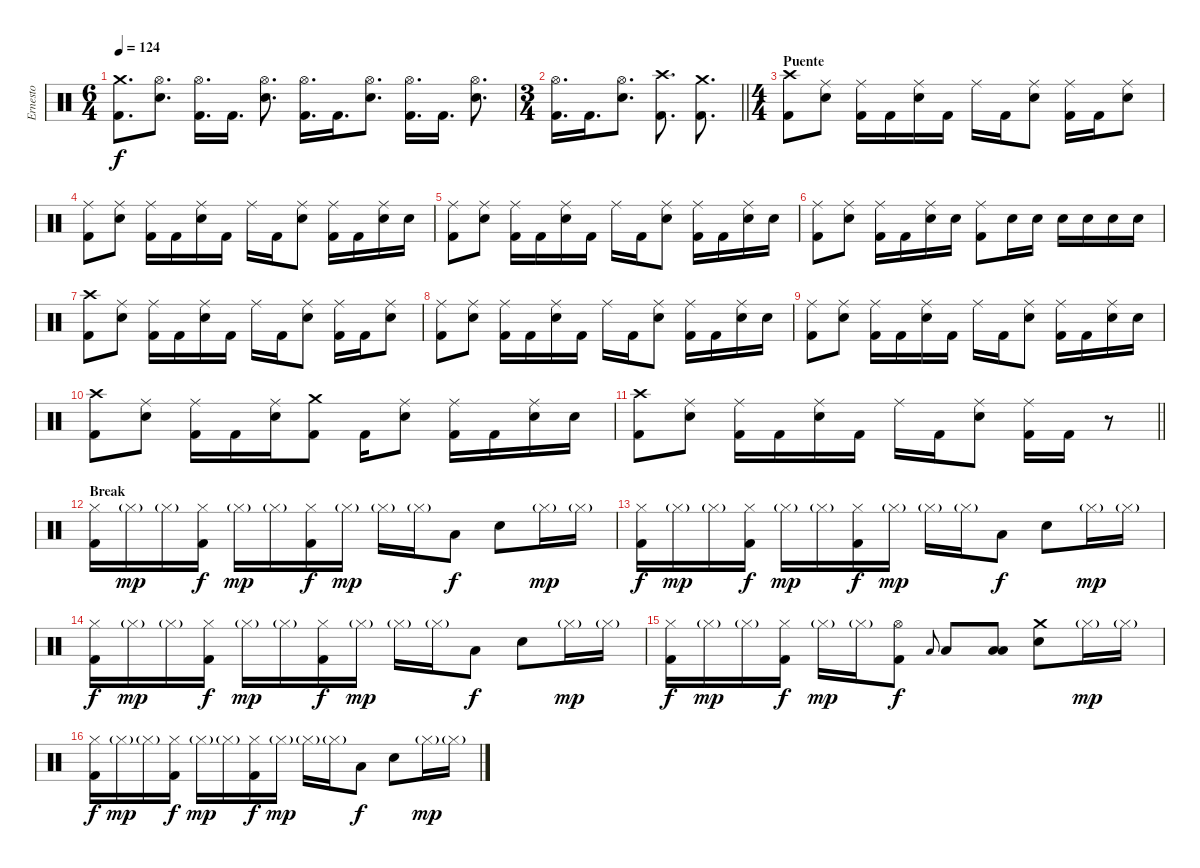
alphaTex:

\track ("Ernesto" "Ernesto") {instrument percussion}
\staff
\articulation defaults
\ts (6 4)
\tempo 124
\clef neutral
\ks c
("Crash medium (hit)" "Kick (hit) 2").8{d dy f} ("Hi-Hat (open)" "Electric Snare (hit)").8{d} ("Hi-Hat (open)" "Kick (hit) 2").16{d} "Kick (hit) 2".16{d} ("Hi-Hat (open)" "Electric Snare (hit)").8{d} ("Hi-Hat (open)" "Kick (hit) 2").16{d} "Kick (hit) 2".16{d} ("Hi-Hat (open)" "Electric Snare (hit)").8{d} ("Hi-Hat (open)" "Kick (hit) 2").16{d} "Kick (hit) 2".16{d} ("Hi-Hat (open)" "Electric Snare (hit)").8{d} |
\ts (3 4)
\barLineRight lightlight
("Hi-Hat (open)" "Kick (hit) 2").16{d} "Kick (hit) 2".16{d} ("Hi-Hat (open)" "Electric Snare (hit)").8{d} ("Crash high (hit)" "Kick (hit) 2").8{d} ("Crash medium (hit)" "Kick (hit) 2").8{d} |
\ts (4 4)
\section ("" "Puente")
("Crash high (hit)" "Kick (hit) 2").8 ("Ride (middle)" "Electric Snare (hit)").8 ("Ride (middle)" "Kick (hit) 2").16 "Kick (hit) 2".16 ("Ride (middle)" "Electric Snare (hit)").16 "Kick (hit) 2".16 "Ride (middle)".16 "Kick (hit) 2".16 ("Ride (middle)" "Electric Snare (hit)").8 ("Ride (middle)" "Kick (hit) 2").16 "Kick (hit) 2".16 ("Ride (middle)" "Electric Snare (hit)").8 |
("Ride (middle)" "Kick (hit) 2").8 ("Ride (middle)" "Electric Snare (hit)").8 ("Ride (middle)" "Kick (hit) 2").16 "Kick (hit) 2".16 ("Ride (middle)" "Electric Snare (hit)").16 "Kick (hit) 2".16 "Ride (middle)".16 "Kick (hit) 2".16 ("Ride (middle)" "Electric Snare (hit)").8 ("Ride (middle)" "Kick (hit) 2").16 "Kick (hit) 2".16 ("Ride (middle)" "Electric Snare (hit)").16 "Electric Snare (hit)".16 |
("Ride (middle)" "Kick (hit) 2").8 ("Ride (middle)" "Electric Snare (hit)").8 ("Ride (middle)" "Kick (hit) 2").16 "Kick (hit) 2".16 ("Ride (middle)" "Electric Snare (hit)").16 "Kick (hit) 2".16 "Ride (middle)".16 "Kick (hit) 2".16 ("Ride (middle)" "Electric Snare (hit)").8 ("Ride (middle)" "Kick (hit) 2").16 "Kick (hit) 2".16 ("Ride (middle)" "Electric Snare (hit)").16 "Electric Snare (hit)".16 |
("Ride (middle)" "Kick (hit) 2").8 ("Ride (middle)" "Electric Snare (hit)").8 ("Ride (middle)" "Kick (hit) 2").16 "Kick (hit) 2".16 ("Ride (middle)" "Electric Snare (hit)").16 "Electric Snare (hit)".16 ("Ride (middle)" "Kick (hit) 2").8 "Electric Snare (hit)".16 "Electric Snare (hit)".16 "Electric Snare (hit)".16 "Electric Snare (hit)".16 "Electric Snare (hit)".16 "Electric Snare (hit)".16 |
("Crash high (hit)" "Kick (hit) 2").8 ("Ride (middle)" "Electric Snare (hit)").8 ("Ride (middle)" "Kick (hit) 2").16 "Kick (hit) 2".16 ("Ride (middle)" "Electric Snare (hit)").16 "Kick (hit) 2".16 "Ride (middle)".16 "Kick (hit) 2".16 ("Ride (middle)" "Electric Snare (hit)").8 ("Ride (middle)" "Kick (hit) 2").16 "Kick (hit) 2".16 ("Ride (middle)" "Electric Snare (hit)").8 |
("Ride (middle)" "Kick (hit) 2").8 ("Ride (middle)" "Electric Snare (hit)").8 ("Ride (middle)" "Kick (hit) 2").16 "Kick (hit) 2".16 ("Ride (middle)" "Electric Snare (hit)").16 "Kick (hit) 2".16 "Ride (middle)".16 "Kick (hit) 2".16 ("Ride (middle)" "Electric Snare (hit)").8 ("Ride (middle)" "Kick (hit) 2").16 "Kick (hit) 2".16 ("Ride (middle)" "Electric Snare (hit)").16 "Electric Snare (hit)".16 |
("Ride (middle)" "Kick (hit) 2").8 ("Ride (middle)" "Electric Snare (hit)").8 ("Ride (middle)" "Kick (hit) 2").16 "Kick (hit) 2".16 ("Ride (middle)" "Electric Snare (hit)").16 "Kick (hit) 2".16 "Ride (middle)".16 "Kick (hit) 2".16 ("Ride (middle)" "Electric Snare (hit)").8 ("Ride (middle)" "Kick (hit) 2").16 "Kick (hit) 2".16 ("Ride (middle)" "Electric Snare (hit)").16 "Electric Snare (hit)".16 |
("Crash high (hit)" "Kick (hit) 2").8 ("Ride (middle)" "Electric Snare (hit)").8 ("Ride (middle)" "Kick (hit) 2").16 "Kick (hit) 2".16 ("Ride (middle)" "Electric Snare (hit)").16 ("Crash medium (hit)" "Kick (hit) 2").8 "Kick (hit) 2".16 ("Ride (middle)" "Electric Snare (hit)").8 ("Ride (middle)" "Kick (hit) 2").16 "Kick (hit) 2".16 ("Ride (middle)" "Electric Snare (hit)").16 "Electric Snare (hit)".16 |
\barLineRight lightlight
("Crash high (hit)" "Kick (hit) 2").8 ("Ride (middle)" "Electric Snare (hit)").8 ("Ride (middle)" "Kick (hit) 2").16 "Kick (hit) 2".16 ("Ride (middle)" "Electric Snare (hit)").16 "Kick (hit) 2".16 "Ride (middle)".16 "Kick (hit) 2".16 ("Ride (middle)" "Electric Snare (hit)").8 ("Ride (middle)" "Kick (hit) 2").16 "Kick (hit) 2".16 r.8 |
\section ("" "Break")
("Hi-Hat (closed)" "Kick (hit) 2").16 "Hi-Hat (closed)"{g}.16{dy mp} "Hi-Hat (closed)"{g}.16 ("Hi-Hat (closed)" "Kick (hit) 2").16{dy f} "Hi-Hat (closed)"{g}.16{dy mp} "Hi-Hat (closed)"{g}.16 ("Hi-Hat (closed)" "Kick (hit) 2").16{dy f} "Hi-Hat (closed)"{g}.16{dy mp} "Hi-Hat (closed)"{g}.16 "Hi-Hat (closed)"{g}.16 "Low Tom (hit)".8{dy f} "Electric Snare (hit)".8 "Hi-Hat (closed)"{g}.16{dy mp} "Hi-Hat (closed)"{g}.16 |
("Hi-Hat (closed)" "Kick (hit) 2").16{dy f} "Hi-Hat (closed)"{g}.16{dy mp} "Hi-Hat (closed)"{g}.16 ("Hi-Hat (closed)" "Kick (hit) 2").16{dy f} "Hi-Hat (closed)"{g}.16{dy mp} "Hi-Hat (closed)"{g}.16 ("Hi-Hat (closed)" "Kick (hit) 2").16{dy f} "Hi-Hat (closed)"{g}.16{dy mp} "Hi-Hat (closed)"{g}.16 "Hi-Hat (closed)"{g}.16 "Low Tom (hit)".8{dy f} "Electric Snare (hit)".8 "Hi-Hat (closed)"{g}.16{dy mp} "Hi-Hat (closed)"{g}.16 |
("Hi-Hat (closed)" "Kick (hit) 2").16{dy f} "Hi-Hat (closed)"{g}.16{dy mp} "Hi-Hat (closed)"{g}.16 ("Hi-Hat (closed)" "Kick (hit) 2").16{dy f} "Hi-Hat (closed)"{g}.16{dy mp} "Hi-Hat (closed)"{g}.16 ("Hi-Hat (closed)" "Kick (hit) 2").16{dy f} "Hi-Hat (closed)"{g}.16{dy mp} "Hi-Hat (closed)"{g}.16 "Hi-Hat (closed)"{g}.16 "Low Tom (hit)".8{dy f} "Electric Snare (hit)".8 "Hi-Hat (closed)"{g}.16{dy mp} "Hi-Hat (closed)"{g}.16 |
("Hi-Hat (closed)" "Kick (hit) 2").16{dy f} "Hi-Hat (closed)"{g}.16{dy mp} "Hi-Hat (closed)"{g}.16 ("Hi-Hat (closed)" "Kick (hit) 2").16{dy f} "Hi-Hat (closed)"{g}.16{dy mp} "Hi-Hat (closed)"{g}.16 ("Hi-Hat (open)" "Kick (hit) 2").8{dy f} "Low Tom (hit)".8{gr onbeat} "Low Tom (hit)".8 ("Low Tom (hit)" "Low Floor Tom (hit)").8 ("Crash medium (hit)" "Electric Snare (hit)").8 "Hi-Hat (closed)"{g}.16{dy mp} "Hi-Hat (closed)"{g}.16 |
("Hi-Hat (closed)" "Kick (hit) 2").16{dy f} "Hi-Hat (closed)"{g}.16{dy mp} "Hi-Hat (closed)"{g}.16 ("Hi-Hat (closed)" "Kick (hit) 2").16{dy f} "Hi-Hat (closed)"{g}.16{dy mp} "Hi-Hat (closed)"{g}.16 ("Hi-Hat (closed)" "Kick (hit) 2").16{dy f} "Hi-Hat (closed)"{g}.16{dy mp} "Hi-Hat (closed)"{g}.16 "Hi-Hat (closed)"{g}.16 "Low Tom (hit)".8{dy f} "Electric Snare (hit)".8 "Hi-Hat (closed)"{g}.16{dy mp} "Hi-Hat (closed)"{g}.16
